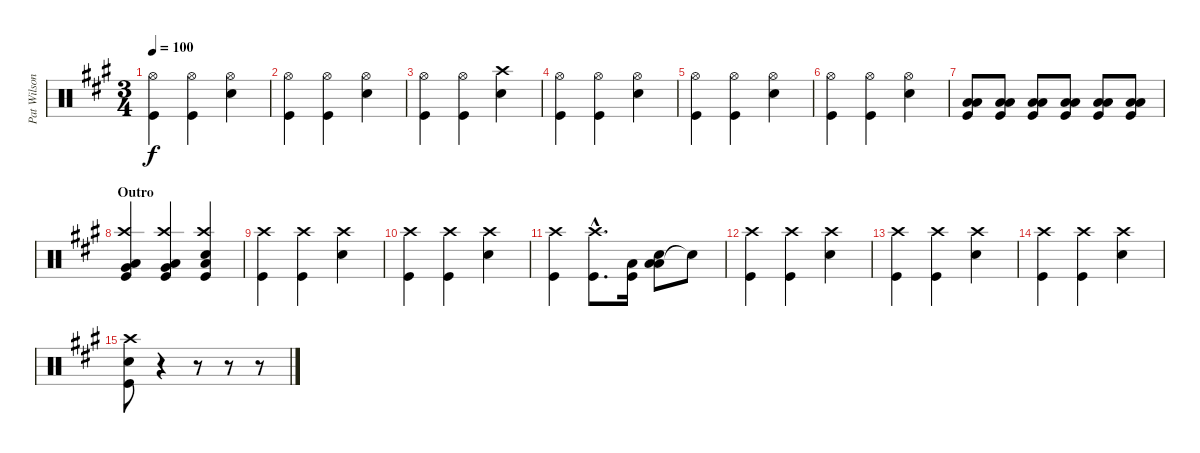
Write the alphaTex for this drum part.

\track ("Pat Wilson" "Pat Wilson") {instrument percussion}
\staff {score}
\articulation defaults
\ts (3 4)
\tempo 100
\clef neutral
\ks a
("Hi-Hat (open)" "Kick (hit)").4{dy f} ("Hi-Hat (open)" "Kick (hit)").4 ("Hi-Hat (open)" "Snare (hit) 2").4 |
("Hi-Hat (open)" "Kick (hit)").4 ("Hi-Hat (open)" "Kick (hit)").4 ("Hi-Hat (open)" "Snare (hit) 2").4 |
("Hi-Hat (open)" "Kick (hit)").4 ("Hi-Hat (open)" "Kick (hit)").4 ("Crash high (hit)" "Snare (hit) 2").4 |
("Hi-Hat (open)" "Kick (hit)").4 ("Hi-Hat (open)" "Kick (hit)").4 ("Hi-Hat (open)" "Snare (hit) 2").4 |
("Hi-Hat (open)" "Kick (hit)").4 ("Hi-Hat (open)" "Kick (hit)").4 ("Hi-Hat (open)" "Snare (hit) 2").4 |
("Hi-Hat (open)" "Kick (hit)").4 ("Hi-Hat (open)" "Kick (hit)").4 ("Hi-Hat (open)" "Snare (hit) 2").4 |
("Kick (hit)" "Low Floor Tom (hit)" "Low Tom (hit)").8 ("Kick (hit)" "Low Floor Tom (hit)" "Low Tom (hit)").8 ("Kick (hit)" "Low Floor Tom (hit)" "Low Tom (hit)").8 ("Kick (hit)" "Low Floor Tom (hit)" "Low Tom (hit)").8 ("Kick (hit)" "Low Floor Tom (hit)" "Low Tom (hit)").8 ("Kick (hit)" "Low Floor Tom (hit)" "Low Tom (hit)").8 |
\section ("" "Outro")
("Crash high (hit)" "Kick (hit)" "Low Floor Tom (hit)" "Very Low Tom (hit)").4 ("Crash high (hit)" "Kick (hit)" "Low Floor Tom (hit)" "Very Low Tom (hit)").4 ("Crash high (hit)" "Snare (hit) 2" "Low Floor Tom (hit)" "Kick (hit)").4 |
("Crash high (hit)" "Kick (hit)").4 ("Crash high (hit)" "Kick (hit)").4 ("Crash high (hit)" "Snare (hit) 2").4 |
("Crash high (hit)" "Kick (hit)").4 ("Crash high (hit)" "Kick (hit)").4 ("Crash high (hit)" "Snare (hit) 2").4 |
("Crash high (hit)" "Kick (hit)").4 ("Crash high (hit)"{hac} "Kick (hit)"{hac}).8{d} ("Kick (hit)" "Low Floor Tom (hit)").16 ("Low Floor Tom (hit)" "Low Tom (hit)" "Snare (hit) 2").8 "Snare (hit)"{t}.8 |
("Crash high (hit)" "Kick (hit)").4 ("Crash high (hit)" "Kick (hit)").4 ("Crash high (hit)" "Snare (hit) 2").4 |
("Crash high (hit)" "Kick (hit)").4 ("Crash high (hit)" "Kick (hit)").4 ("Crash high (hit)" "Snare (hit) 2").4 |
("Crash high (hit)" "Kick (hit)").4 ("Crash high (hit)" "Kick (hit)").4 ("Crash high (hit)" "Snare (hit) 2").4 |
("Crash high (hit)" "Snare (hit) 2" "Kick (hit)").8 r.4 r.8 r.8 r.8
